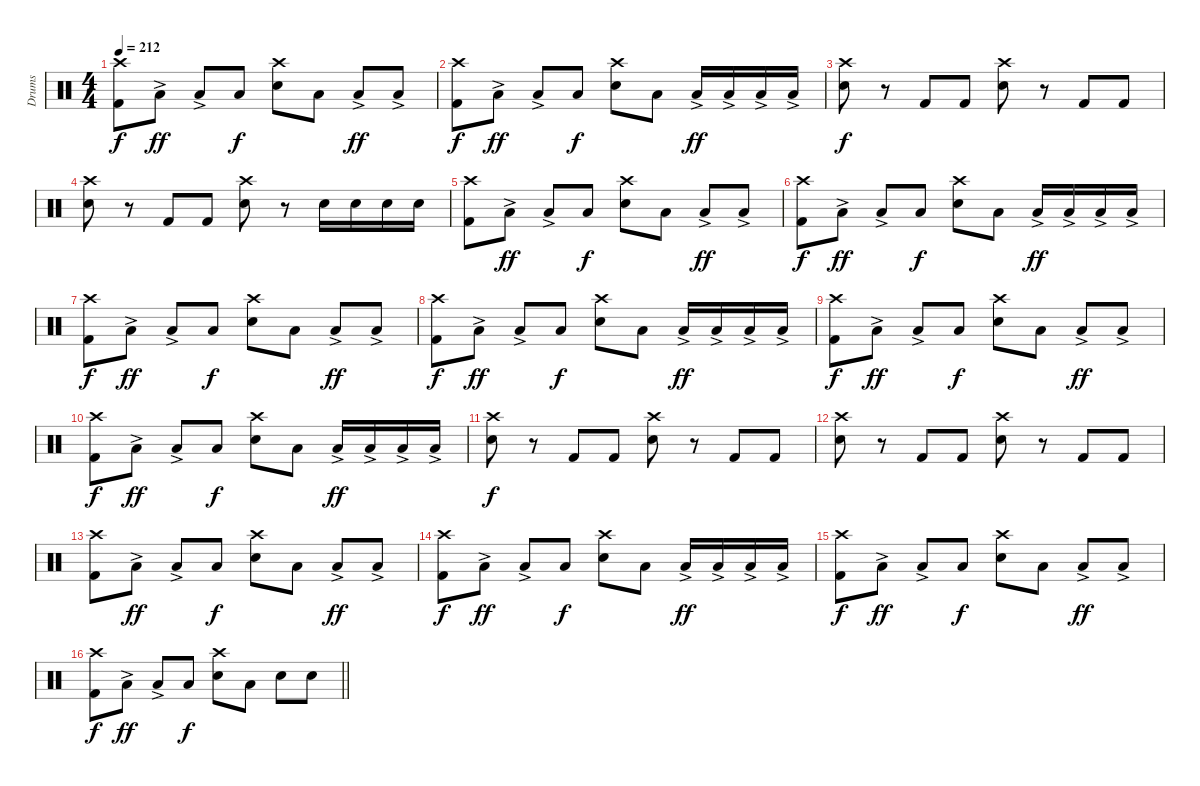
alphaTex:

\track ("Drums" "Drums") {instrument percussion}
\staff {score}
\articulation defaults
\ts (4 4)
\tempo 212
\clef neutral
\ks c
("Crash high (hit)" "Kick (hit) 2").8{dy f} "Low Floor Tom (hit)"{ac}.8{dy ff} "Low Floor Tom (hit)"{ac}.8 "Low Floor Tom (hit)".8{dy f} ("Crash high (hit)" "Snare (hit) 2").8 "Low Floor Tom (hit)".8 "Low Floor Tom (hit)"{ac}.8{dy ff} "Low Floor Tom (hit)"{ac}.8 |
("Crash high (hit)" "Kick (hit) 2").8{dy f} "Low Floor Tom (hit)"{ac}.8{dy ff} "Low Floor Tom (hit)"{ac}.8 "Low Floor Tom (hit)".8{dy f} ("Crash high (hit)" "Snare (hit) 2").8 "Low Floor Tom (hit)".8 "Low Floor Tom (hit)"{ac}.16{dy ff} "Low Floor Tom (hit)"{ac}.16 "Low Floor Tom (hit)"{ac}.16 "Low Floor Tom (hit)"{ac}.16 |
("Crash high (hit)" "Snare (hit) 2").8{dy f} r.8 "Kick (hit) 2".8 "Kick (hit) 2".8 ("Crash high (hit)" "Snare (hit) 2").8 r.8 "Kick (hit) 2".8 "Kick (hit) 2".8 |
("Crash high (hit)" "Snare (hit) 2").8 r.8 "Kick (hit) 2".8 "Kick (hit) 2".8 ("Crash high (hit)" "Snare (hit) 2").8 r.8 "Snare (hit) 2".16 "Snare (hit) 2".16 "Snare (hit) 2".16 "Snare (hit) 2".16 |
("Crash high (hit)" "Kick (hit) 2").8 "Low Floor Tom (hit)"{ac}.8{dy ff} "Low Floor Tom (hit)"{ac}.8 "Low Floor Tom (hit)".8{dy f} ("Crash high (hit)" "Snare (hit) 2").8 "Low Floor Tom (hit)".8 "Low Floor Tom (hit)"{ac}.8{dy ff} "Low Floor Tom (hit)"{ac}.8 |
("Crash high (hit)" "Kick (hit) 2").8{dy f} "Low Floor Tom (hit)"{ac}.8{dy ff} "Low Floor Tom (hit)"{ac}.8 "Low Floor Tom (hit)".8{dy f} ("Crash high (hit)" "Snare (hit) 2").8 "Low Floor Tom (hit)".8 "Low Floor Tom (hit)"{ac}.16{dy ff} "Low Floor Tom (hit)"{ac}.16 "Low Floor Tom (hit)"{ac}.16 "Low Floor Tom (hit)"{ac}.16 |
("Crash high (hit)" "Kick (hit) 2").8{dy f} "Low Floor Tom (hit)"{ac}.8{dy ff} "Low Floor Tom (hit)"{ac}.8 "Low Floor Tom (hit)".8{dy f} ("Crash high (hit)" "Snare (hit) 2").8 "Low Floor Tom (hit)".8 "Low Floor Tom (hit)"{ac}.8{dy ff} "Low Floor Tom (hit)"{ac}.8 |
("Crash high (hit)" "Kick (hit) 2").8{dy f} "Low Floor Tom (hit)"{ac}.8{dy ff} "Low Floor Tom (hit)"{ac}.8 "Low Floor Tom (hit)".8{dy f} ("Crash high (hit)" "Snare (hit) 2").8 "Low Floor Tom (hit)".8 "Low Floor Tom (hit)"{ac}.16{dy ff} "Low Floor Tom (hit)"{ac}.16 "Low Floor Tom (hit)"{ac}.16 "Low Floor Tom (hit)"{ac}.16 |
("Crash high (hit)" "Kick (hit) 2").8{dy f} "Low Floor Tom (hit)"{ac}.8{dy ff} "Low Floor Tom (hit)"{ac}.8 "Low Floor Tom (hit)".8{dy f} ("Crash high (hit)" "Snare (hit) 2").8 "Low Floor Tom (hit)".8 "Low Floor Tom (hit)"{ac}.8{dy ff} "Low Floor Tom (hit)"{ac}.8 |
("Crash high (hit)" "Kick (hit) 2").8{dy f} "Low Floor Tom (hit)"{ac}.8{dy ff} "Low Floor Tom (hit)"{ac}.8 "Low Floor Tom (hit)".8{dy f} ("Crash high (hit)" "Snare (hit) 2").8 "Low Floor Tom (hit)".8 "Low Floor Tom (hit)"{ac}.16{dy ff} "Low Floor Tom (hit)"{ac}.16 "Low Floor Tom (hit)"{ac}.16 "Low Floor Tom (hit)"{ac}.16 |
("Crash high (hit)" "Snare (hit) 2").8{dy f} r.8 "Kick (hit) 2".8 "Kick (hit) 2".8 ("Crash high (hit)" "Snare (hit) 2").8 r.8 "Kick (hit) 2".8 "Kick (hit) 2".8 |
("Crash high (hit)" "Snare (hit) 2").8 r.8 "Kick (hit) 2".8 "Kick (hit) 2".8 ("Crash high (hit)" "Snare (hit) 2").8 r.8 "Kick (hit) 2".8 "Kick (hit) 2".8 |
("Crash high (hit)" "Kick (hit) 2").8 "Low Floor Tom (hit)"{ac}.8{dy ff} "Low Floor Tom (hit)"{ac}.8 "Low Floor Tom (hit)".8{dy f} ("Crash high (hit)" "Snare (hit) 2").8 "Low Floor Tom (hit)".8 "Low Floor Tom (hit)"{ac}.8{dy ff} "Low Floor Tom (hit)"{ac}.8 |
("Crash high (hit)" "Kick (hit) 2").8{dy f} "Low Floor Tom (hit)"{ac}.8{dy ff} "Low Floor Tom (hit)"{ac}.8 "Low Floor Tom (hit)".8{dy f} ("Crash high (hit)" "Snare (hit) 2").8 "Low Floor Tom (hit)".8 "Low Floor Tom (hit)"{ac}.16{dy ff} "Low Floor Tom (hit)"{ac}.16 "Low Floor Tom (hit)"{ac}.16 "Low Floor Tom (hit)"{ac}.16 |
("Crash high (hit)" "Kick (hit) 2").8{dy f} "Low Floor Tom (hit)"{ac}.8{dy ff} "Low Floor Tom (hit)"{ac}.8 "Low Floor Tom (hit)".8{dy f} ("Crash high (hit)" "Snare (hit) 2").8 "Low Floor Tom (hit)".8 "Low Floor Tom (hit)"{ac}.8{dy ff} "Low Floor Tom (hit)"{ac}.8 |
\barLineRight lightlight
("Crash high (hit)" "Kick (hit) 2").8{dy f} "Low Floor Tom (hit)"{ac}.8{dy ff} "Low Floor Tom (hit)"{ac}.8 "Low Floor Tom (hit)".8{dy f} ("Crash high (hit)" "Snare (hit) 2").8 "Low Floor Tom (hit)".8 "Snare (hit) 2".8 "Snare (hit) 2".8
